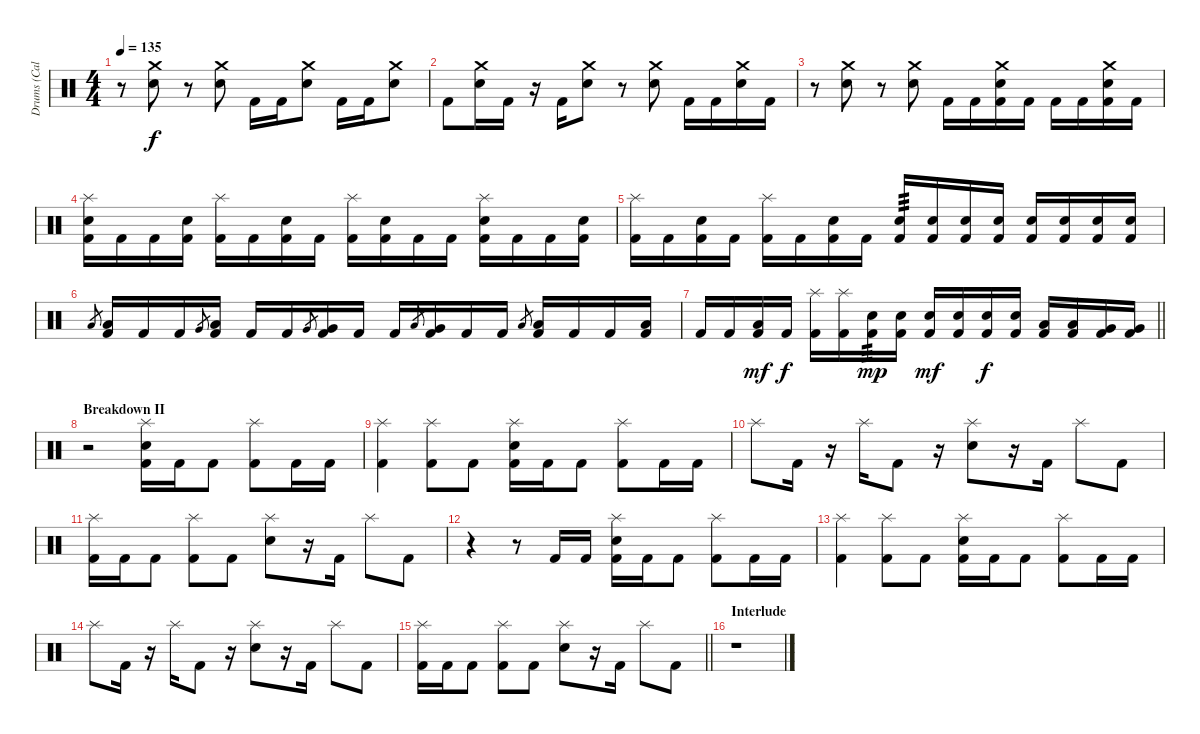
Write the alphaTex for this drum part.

\track ("Drums (Caleb Burton)" "Drums (Cal") {instrument percussion}
\staff {score}
\articulation defaults
\ts (4 4)
\tempo 135
\clef neutral
\ks c
r.8{dy f} ("Crash medium (hit)" "Electric Snare (hit)").8 r.8 ("Crash medium (hit)" "Electric Snare (hit)").8 "Kick (hit) 2".16 "Kick (hit) 2".16 ("Crash medium (hit)" "Electric Snare (hit)").8 "Kick (hit) 2".16 "Kick (hit) 2".16 ("Crash medium (hit)" "Electric Snare (hit)").8 |
"Kick (hit) 2".8 ("Crash medium (hit)" "Electric Snare (hit)").16 "Kick (hit) 2".16 r.16 "Kick (hit) 2".16 ("Crash medium (hit)" "Electric Snare (hit)").8 r.8 ("Crash medium (hit)" "Electric Snare (hit)").8 "Kick (hit) 2".16 "Kick (hit) 2".16 ("Crash medium (hit)" "Electric Snare (hit)").16 "Kick (hit) 2".16 |
r.8 ("Crash medium (hit)" "Electric Snare (hit)").8 r.8 ("Crash medium (hit)" "Electric Snare (hit)").8 "Kick (hit) 2".16 "Kick (hit) 2".16 ("Crash medium (hit)" "Electric Snare (hit)" "Kick (hit) 2").16 "Kick (hit) 2".16 "Kick (hit) 2".16 "Kick (hit) 2".16 ("Crash medium (hit)" "Electric Snare (hit)" "Kick (hit) 2").16 "Kick (hit) 2".16 |
("Splash (hit)" "Electric Snare (hit)" "Kick (hit) 2").16 "Kick (hit) 2".16 "Kick (hit) 2".16 ("Electric Snare (hit)" "Kick (hit) 2").16 ("Splash (hit)" "Kick (hit) 2").16 "Kick (hit) 2".16 ("Electric Snare (hit)" "Kick (hit) 2").16 "Kick (hit) 2".16 ("Splash (hit)" "Kick (hit) 2").16 ("Electric Snare (hit)" "Kick (hit) 2").16 "Kick (hit) 2".16 "Kick (hit) 2".16 ("Splash (hit)" "Electric Snare (hit)" "Kick (hit) 2").16 "Kick (hit) 2".16 "Kick (hit) 2".16 ("Electric Snare (hit)" "Kick (hit) 2").16 |
("Splash (hit)" "Kick (hit) 2").16 "Kick (hit) 2".16 ("Electric Snare (hit)" "Kick (hit) 2").16 "Kick (hit) 2".16 ("Splash (hit)" "Kick (hit) 2").16 "Kick (hit) 2".16 ("Electric Snare (hit)" "Kick (hit) 2").16 "Kick (hit) 2".16 ("Electric Snare (hit)" "Kick (hit) 2").16{tp 3} ("Electric Snare (hit)" "Kick (hit) 2").16 ("Electric Snare (hit)" "Kick (hit) 2").16 ("Electric Snare (hit)" "Kick (hit) 2").16 ("Electric Snare (hit)" "Kick (hit) 2").16 ("Electric Snare (hit)" "Kick (hit) 2").16 ("Electric Snare (hit)" "Kick (hit) 2").16 ("Electric Snare (hit)" "Kick (hit) 2").16 |
"Low Tom (hit)".8{gr} ("Low Tom (hit)" "Kick (hit) 2").16 "Kick (hit) 2".16 "Kick (hit) 2".16 "Very Low Tom (hit)".8{gr} ("Low Tom (hit)" "Kick (hit) 2").16 "Kick (hit) 2".16 "Kick (hit) 2".16 "Very Low Tom (hit)".8{gr} ("Very Low Tom (hit)" "Kick (hit) 2").16 "Kick (hit) 2".16 "Kick (hit) 2".16 "Low Floor Tom (hit)".8{gr} ("Very Low Tom (hit)" "Kick (hit) 2").16 "Kick (hit) 2".16 "Kick (hit) 2".16 "Low Floor Tom (hit)".8{gr} ("Low Floor Tom (hit)" "Kick (hit) 2").16 "Kick (hit) 2".16 "Kick (hit) 2".16 ("Low Floor Tom (hit)" "Kick (hit) 2").16 |
\barLineRight lightlight "Kick (hit) 2".16 "Kick (hit) 2".16
("Low Floor Tom (hit)" "Kick (hit) 2").16{dy mf} "Kick (hit) 2".16{dy f} ("Splash (hit)" "Kick (hit) 2").16 ("Splash (hit)" "Kick (hit) 2").16 ("Electric Snare (hit)" "Kick (hit) 2").16{tp 3 dy mp} ("Electric Snare (hit)" "Kick (hit) 2").16 ("Electric Snare (hit)" "Kick (hit) 2").16{dy mf} ("Electric Snare (hit)" "Kick (hit) 2").16 ("Electric Snare (hit)" "Kick (hit) 2").16{dy f} ("Electric Snare (hit)" "Kick (hit) 2").16 ("Low Tom (hit)" "Kick (hit) 2").16 ("Low Tom (hit)" "Kick (hit) 2").16 ("Very Low Tom (hit)" "Kick (hit) 2").16 ("Very Low Tom (hit)" "Kick (hit) 2").16 |
\section ("" "Breakdown II")
r.2 ("Splash (hit)" "Electric Snare (hit)" "Kick (hit) 2").16 "Kick (hit) 2".16 "Kick (hit) 2".8 ("Splash (hit)" "Kick (hit) 2").8 "Kick (hit) 2".16 "Kick (hit) 2".16 |
("Splash (hit)" "Kick (hit) 2").4 ("Splash (hit)" "Kick (hit) 2").8 "Kick (hit) 2".8 ("Splash (hit)" "Electric Snare (hit)" "Kick (hit) 2").16 "Kick (hit) 2".16 "Kick (hit) 2".8 ("Splash (hit)" "Kick (hit) 2").8 "Kick (hit) 2".16 "Kick (hit) 2".16 |
"Splash (hit)".8 "Kick (hit) 2".16 r.16 "Splash (hit)".16 "Kick (hit) 2".8 r.16 ("Splash (hit)" "Electric Snare (hit)").8 r.16 "Kick (hit) 2".16 "Splash (hit)".8 "Kick (hit) 2".8 |
("Splash (hit)" "Kick (hit) 2").16 "Kick (hit) 2".16 "Kick (hit) 2".8 ("Splash (hit)" "Kick (hit) 2").8 "Kick (hit) 2".8 ("Splash (hit)" "Electric Snare (hit)").8 r.16 "Kick (hit) 2".16 "Splash (hit)".8 "Kick (hit) 2".8 |
r.4 r.8 "Kick (hit) 2".16 "Kick (hit) 2".16 ("Splash (hit)" "Electric Snare (hit)" "Kick (hit) 2").16 "Kick (hit) 2".16 "Kick (hit) 2".8 ("Splash (hit)" "Kick (hit) 2").8 "Kick (hit) 2".16 "Kick (hit) 2".16 |
("Splash (hit)" "Kick (hit) 2").4 ("Splash (hit)" "Kick (hit) 2").8 "Kick (hit) 2".8 ("Splash (hit)" "Electric Snare (hit)" "Kick (hit) 2").16 "Kick (hit) 2".16 "Kick (hit) 2".8 ("Splash (hit)" "Kick (hit) 2").8 "Kick (hit) 2".16 "Kick (hit) 2".16 |
"Splash (hit)".8 "Kick (hit) 2".16 r.16 "Splash (hit)".16 "Kick (hit) 2".8 r.16 ("Splash (hit)" "Electric Snare (hit)").8 r.16 "Kick (hit) 2".16 "Splash (hit)".8 "Kick (hit) 2".8 |
\barLineRight lightlight
("Splash (hit)" "Kick (hit) 2").16 "Kick (hit) 2".16 "Kick (hit) 2".8 ("Splash (hit)" "Kick (hit) 2").8 "Kick (hit) 2".8 ("Splash (hit)" "Electric Snare (hit)").8 r.16 "Kick (hit) 2".16 "Splash (hit)".8 "Kick (hit) 2".8 |
\section ("" "Interlude")
r.1
